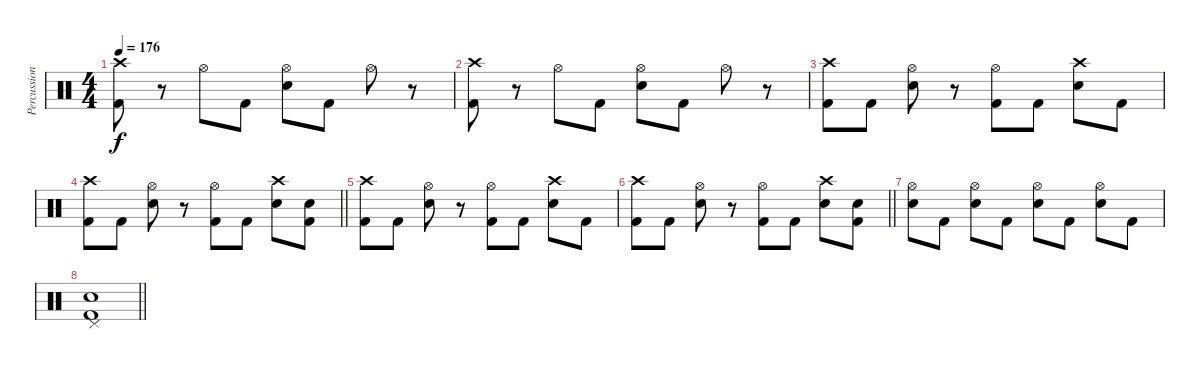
\track ("Percussion" "Percussion") {instrument percussion}
\staff {score}
\articulation defaults
\ts (4 4)
\tempo 176
\clef neutral
\ks c
("Crash high (hit)" "Kick (hit) 2").8{dy f} r.8 "Hi-Hat (open)".8 "Kick (hit) 2".8 ("Hi-Hat (open)" "Electric Snare (hit)").8 "Kick (hit) 2".8 "Hi-Hat (open)".8 r.8 |
("Crash high (hit)" "Kick (hit) 2").8 r.8 "Hi-Hat (open)".8 "Kick (hit) 2".8 ("Hi-Hat (open)" "Electric Snare (hit)").8 "Kick (hit) 2".8 "Hi-Hat (open)".8 r.8 |
("Crash high (hit)" "Kick (hit) 2").8 "Kick (hit) 2".8 ("Hi-Hat (open)" "Electric Snare (hit)").8 r.8 ("Hi-Hat (open)" "Kick (hit) 2").8 "Kick (hit) 2".8 ("Crash high (hit)" "Electric Snare (hit)").8 "Kick (hit) 2".8 |
\barLineRight lightlight
("Crash high (hit)" "Kick (hit) 2").8 "Kick (hit) 2".8 ("Hi-Hat (open)" "Electric Snare (hit)").8 r.8 ("Hi-Hat (open)" "Kick (hit) 2").8 "Kick (hit) 2".8 ("Crash high (hit)" "Electric Snare (hit)").8 ("Electric Snare (hit)" "Kick (hit) 2").8 |
("Crash high (hit)" "Kick (hit) 2").8 "Kick (hit) 2".8 ("Hi-Hat (open)" "Electric Snare (hit)").8 r.8 ("Hi-Hat (open)" "Kick (hit) 2").8 "Kick (hit) 2".8 ("Crash high (hit)" "Electric Snare (hit)").8 "Kick (hit) 2".8 |
\barLineRight lightlight
("Crash high (hit)" "Kick (hit) 2").8 "Kick (hit) 2".8 ("Hi-Hat (open)" "Electric Snare (hit)").8 r.8 ("Hi-Hat (open)" "Kick (hit) 2").8 "Kick (hit) 2".8 ("Crash high (hit)" "Electric Snare (hit)").8 ("Electric Snare (hit)" "Kick (hit) 2").8 |
("Hi-Hat (open)" "Electric Snare (hit)").8 "Kick (hit) 2".8 ("Hi-Hat (open)" "Electric Snare (hit)").8 "Kick (hit) 2".8 ("Hi-Hat (open)" "Electric Snare (hit)").8 "Kick (hit) 2".8 ("Hi-Hat (open)" "Electric Snare (hit)").8 "Kick (hit) 2".8 |
\barLineRight lightlight
("Pedal Hi-Hat (hit)" "Electric Snare (hit)" "Kick (hit) 2").1
